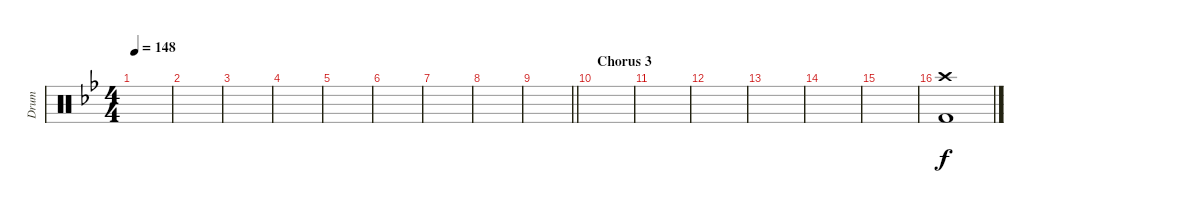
\track ("Drum" "Drum") {instrument percussion}
\staff {score}
\articulation defaults
\ts (4 4)
\tempo 148
\clef neutral
\ks bb
|
|
|
|
|
|
|
|
\barLineRight lightlight
|
\section ("" "Chorus 3")
|
|
|
|
|
|
("Crash high (hit)" "Kick (hit) 2").1
